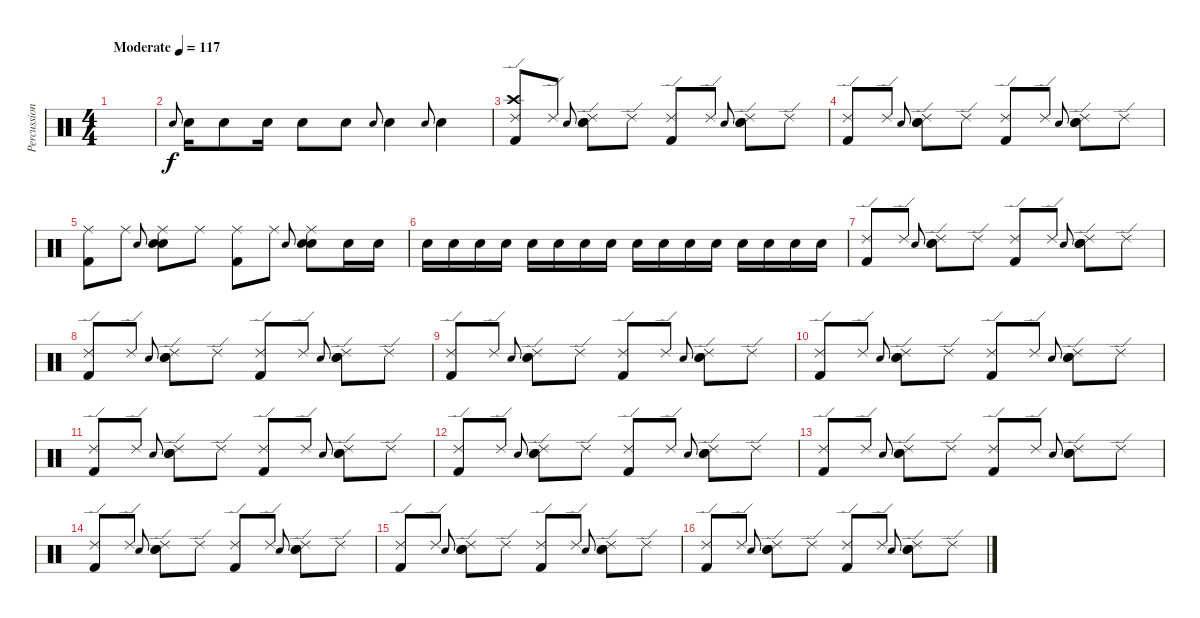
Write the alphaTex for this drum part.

\track ("Percussion" "Percussion") {instrument percussion}
\staff {score}
\articulation defaults
\ts (4 4)
\tempo (117 "Moderate")
\clef neutral
\ks c
|
"Electric Snare (hit)".8{gr onbeat} "Electric Snare (hit)".16 "Electric Snare (hit)".8 "Electric Snare (hit)".16 "Electric Snare (hit)".8 "Electric Snare (hit)".8 "Electric Snare (hit)".8{gr onbeat} "Electric Snare (hit)".4 "Electric Snare (hit)".8{gr onbeat} "Electric Snare (hit)".4 |
("Ride (edge) 2" "Crash high (hit)" "Kick (hit) 2").8 "Ride (edge) 2".8 "Electric Snare (hit)".8{gr onbeat} ("Ride (edge) 2" "Electric Snare (hit)" "Electric Snare (hit)").8 "Ride (edge) 2".8 ("Ride (edge) 2" "Kick (hit) 2").8 "Ride (edge) 2".8 "Electric Snare (hit)".8{gr onbeat} ("Ride (edge) 2" "Electric Snare (hit)" "Electric Snare (hit)").8 "Ride (edge) 2".8 |
("Ride (edge) 2" "Kick (hit) 2").8 "Ride (edge) 2".8 "Electric Snare (hit)".8{gr onbeat} ("Ride (edge) 2" "Electric Snare (hit)" "Electric Snare (hit)").8 "Ride (edge) 2".8 ("Ride (edge) 2" "Kick (hit) 2").8 "Ride (edge) 2".8 "Electric Snare (hit)".8{gr onbeat} ("Ride (edge) 2" "Electric Snare (hit)" "Electric Snare (hit)").8 "Ride (edge) 2".8 |
("Ride (middle)" "Kick (hit) 2").8 "Ride (middle)".8 "Electric Snare (hit)".8{gr onbeat} ("Ride (middle)" "Electric Snare (hit)" "Electric Snare (hit)").8 "Ride (middle)".8 ("Ride (middle)" "Kick (hit) 2").8 "Ride (middle)".8 "Electric Snare (hit)".8{gr onbeat} ("Ride (middle)" "Electric Snare (hit)" "Electric Snare (hit)").8 "Electric Snare (hit)".16 "Electric Snare (hit)".16 |
"Electric Snare (hit)".16 "Electric Snare (hit)".16 "Electric Snare (hit)".16 "Electric Snare (hit)".16 "Electric Snare (hit)".16 "Electric Snare (hit)".16 "Electric Snare (hit)".16 "Electric Snare (hit)".16 "Electric Snare (hit)".16 "Electric Snare (hit)".16 "Electric Snare (hit)".16 "Electric Snare (hit)".16 "Electric Snare (hit)".16 "Electric Snare (hit)".16 "Electric Snare (hit)".16 "Electric Snare (hit)".16 |
("Ride (edge) 2" "Kick (hit) 2").8 "Ride (edge) 2".8 "Electric Snare (hit)".8{gr onbeat} ("Ride (edge) 2" "Electric Snare (hit)" "Electric Snare (hit)").8 "Ride (edge) 2".8 ("Ride (edge) 2" "Kick (hit) 2").8 "Ride (edge) 2".8 "Electric Snare (hit)".8{gr onbeat} ("Ride (edge) 2" "Electric Snare (hit)" "Electric Snare (hit)").8 "Ride (edge) 2".8 |
("Ride (edge) 2" "Kick (hit) 2").8 "Ride (edge) 2".8 "Electric Snare (hit)".8{gr onbeat} ("Ride (edge) 2" "Electric Snare (hit)" "Electric Snare (hit)").8 "Ride (edge) 2".8 ("Ride (edge) 2" "Kick (hit) 2").8 "Ride (edge) 2".8 "Electric Snare (hit)".8{gr onbeat} ("Ride (edge) 2" "Electric Snare (hit)" "Electric Snare (hit)").8 "Ride (edge) 2".8 |
("Ride (edge) 2" "Kick (hit) 2").8 "Ride (edge) 2".8 "Electric Snare (hit)".8{gr onbeat} ("Ride (edge) 2" "Electric Snare (hit)" "Electric Snare (hit)").8 "Ride (edge) 2".8 ("Ride (edge) 2" "Kick (hit) 2").8 "Ride (edge) 2".8 "Electric Snare (hit)".8{gr onbeat} ("Ride (edge) 2" "Electric Snare (hit)" "Electric Snare (hit)").8 "Ride (edge) 2".8 |
("Ride (edge) 2" "Kick (hit) 2").8 "Ride (edge) 2".8 "Electric Snare (hit)".8{gr onbeat} ("Ride (edge) 2" "Electric Snare (hit)" "Electric Snare (hit)").8 "Ride (edge) 2".8 ("Ride (edge) 2" "Kick (hit) 2").8 "Ride (edge) 2".8 "Electric Snare (hit)".8{gr onbeat} ("Ride (edge) 2" "Electric Snare (hit)" "Electric Snare (hit)").8 "Ride (edge) 2".8 |
("Ride (edge) 2" "Kick (hit) 2").8 "Ride (edge) 2".8 "Electric Snare (hit)".8{gr onbeat} ("Ride (edge) 2" "Electric Snare (hit)" "Electric Snare (hit)").8 "Ride (edge) 2".8 ("Ride (edge) 2" "Kick (hit) 2").8 "Ride (edge) 2".8 "Electric Snare (hit)".8{gr onbeat} ("Ride (edge) 2" "Electric Snare (hit)" "Electric Snare (hit)").8 "Ride (edge) 2".8 |
("Ride (edge) 2" "Kick (hit) 2").8 "Ride (edge) 2".8 "Electric Snare (hit)".8{gr onbeat} ("Ride (edge) 2" "Electric Snare (hit)" "Electric Snare (hit)").8 "Ride (edge) 2".8 ("Ride (edge) 2" "Kick (hit) 2").8 "Ride (edge) 2".8 "Electric Snare (hit)".8{gr onbeat} ("Ride (edge) 2" "Electric Snare (hit)" "Electric Snare (hit)").8 "Ride (edge) 2".8 |
("Ride (edge) 2" "Kick (hit) 2").8 "Ride (edge) 2".8 "Electric Snare (hit)".8{gr onbeat} ("Ride (edge) 2" "Electric Snare (hit)" "Electric Snare (hit)").8 "Ride (edge) 2".8 ("Ride (edge) 2" "Kick (hit) 2").8 "Ride (edge) 2".8 "Electric Snare (hit)".8{gr onbeat} ("Ride (edge) 2" "Electric Snare (hit)" "Electric Snare (hit)").8 "Ride (edge) 2".8 |
("Ride (edge) 2" "Kick (hit) 2").8 "Ride (edge) 2".8 "Electric Snare (hit)".8{gr onbeat} ("Ride (edge) 2" "Electric Snare (hit)" "Electric Snare (hit)").8 "Ride (edge) 2".8 ("Ride (edge) 2" "Kick (hit) 2").8 "Ride (edge) 2".8 "Electric Snare (hit)".8{gr onbeat} ("Ride (edge) 2" "Electric Snare (hit)" "Electric Snare (hit)").8 "Ride (edge) 2".8 |
("Ride (edge) 2" "Kick (hit) 2").8 "Ride (edge) 2".8 "Electric Snare (hit)".8{gr onbeat} ("Ride (edge) 2" "Electric Snare (hit)" "Electric Snare (hit)").8 "Ride (edge) 2".8 ("Ride (edge) 2" "Kick (hit) 2").8 "Ride (edge) 2".8 "Electric Snare (hit)".8{gr onbeat} ("Ride (edge) 2" "Electric Snare (hit)" "Electric Snare (hit)").8 "Ride (edge) 2".8 |
("Ride (edge) 2" "Kick (hit) 2").8 "Ride (edge) 2".8 "Electric Snare (hit)".8{gr onbeat} ("Ride (edge) 2" "Electric Snare (hit)" "Electric Snare (hit)").8 "Ride (edge) 2".8 ("Ride (edge) 2" "Kick (hit) 2").8 "Ride (edge) 2".8 "Electric Snare (hit)".8{gr onbeat} ("Ride (edge) 2" "Electric Snare (hit)" "Electric Snare (hit)").8 "Ride (edge) 2".8
